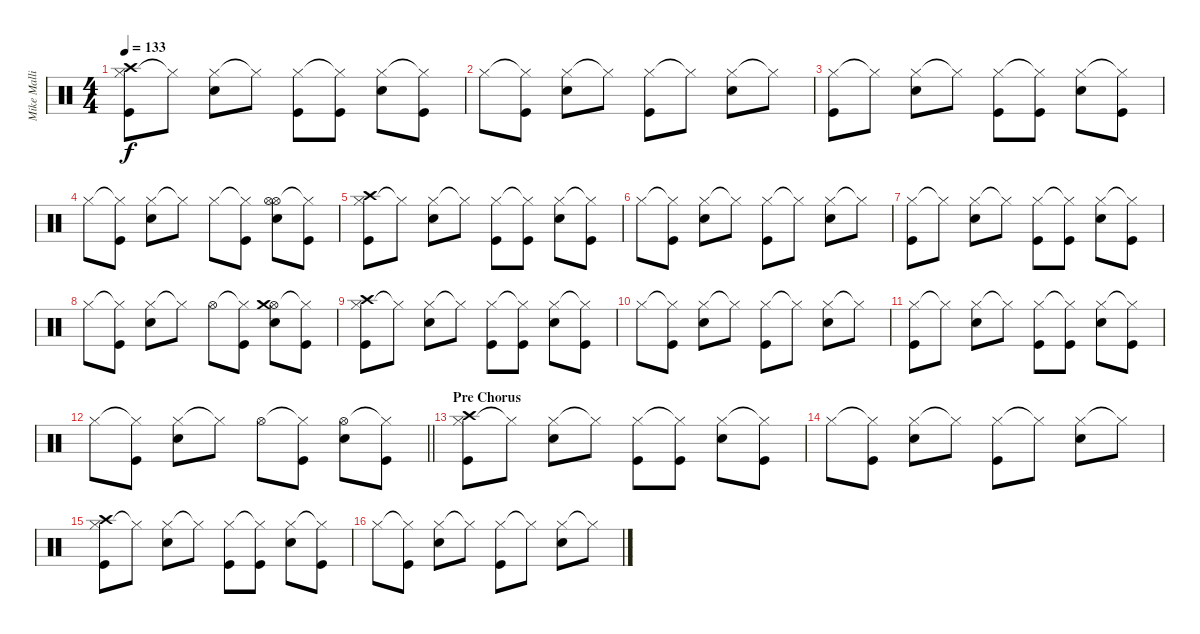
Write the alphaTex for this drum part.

\track ("Mike Mallinin" "Mike Malli") {instrument percussion}
\staff {score}
\articulation defaults
\ts (4 4)
\tempo 133
\clef neutral
\ks c
("Hi-Hat (closed)" "Crash high (hit)" "Kick (hit)").8{dy f} "Hi-Hat (closed)"{t}.8 ("Hi-Hat (closed)" "Snare (hit) 2").8 "Hi-Hat (closed)"{t}.8 ("Hi-Hat (closed)" "Kick (hit)").8 ("Hi-Hat (closed)"{t} "Kick (hit)").8 ("Hi-Hat (closed)" "Snare (hit) 2").8 ("Hi-Hat (closed)"{t} "Kick (hit)").8 |
"Hi-Hat (closed)".8 ("Hi-Hat (closed)"{t} "Kick (hit)").8 ("Hi-Hat (closed)" "Snare (hit) 2").8 "Hi-Hat (closed)"{t}.8 ("Hi-Hat (closed)" "Kick (hit)").8 "Hi-Hat (closed)"{t}.8 ("Hi-Hat (closed)" "Snare (hit) 2").8 "Hi-Hat (closed)"{t}.8 |
("Hi-Hat (closed)" "Kick (hit)").8 "Hi-Hat (closed)"{t}.8 ("Hi-Hat (closed)" "Snare (hit) 2").8 "Hi-Hat (closed)"{t}.8 ("Hi-Hat (closed)" "Kick (hit)").8 ("Hi-Hat (closed)"{t} "Kick (hit)").8 ("Hi-Hat (closed)" "Snare (hit) 2").8 ("Hi-Hat (closed)"{t} "Kick (hit)").8 |
"Hi-Hat (closed)".8 ("Hi-Hat (closed)"{t} "Kick (hit)").8 ("Hi-Hat (closed)" "Snare (hit) 2").8 "Hi-Hat (closed)"{t}.8 "Hi-Hat (closed)".8 ("Hi-Hat (closed)"{t} "Kick (hit)").8 ("Hi-Hat (open)" "Hi-Hat (open)" "Snare (hit) 2").8 ("Hi-Hat (closed)"{t} "Kick (hit)").8 |
("Hi-Hat (closed)" "Crash high (hit)" "Kick (hit)").8 "Hi-Hat (closed)"{t}.8 ("Hi-Hat (closed)" "Snare (hit) 2").8 "Hi-Hat (closed)"{t}.8 ("Hi-Hat (closed)" "Kick (hit)").8 ("Hi-Hat (closed)"{t} "Kick (hit)").8 ("Hi-Hat (closed)" "Snare (hit) 2").8 ("Hi-Hat (closed)"{t} "Kick (hit)").8 |
"Hi-Hat (closed)".8 ("Hi-Hat (closed)"{t} "Kick (hit)").8 ("Hi-Hat (closed)" "Snare (hit) 2").8 "Hi-Hat (closed)"{t}.8 ("Hi-Hat (closed)" "Kick (hit)").8 "Hi-Hat (closed)"{t}.8 ("Hi-Hat (closed)" "Snare (hit) 2").8 "Hi-Hat (closed)"{t}.8 |
("Hi-Hat (closed)" "Kick (hit)").8 "Hi-Hat (closed)"{t}.8 ("Hi-Hat (closed)" "Snare (hit) 2").8 "Hi-Hat (closed)"{t}.8 ("Hi-Hat (closed)" "Kick (hit)").8 ("Hi-Hat (closed)"{t} "Kick (hit)").8 ("Hi-Hat (closed)" "Snare (hit) 2").8 ("Hi-Hat (closed)"{t} "Kick (hit)").8 |
"Hi-Hat (closed)".8 ("Hi-Hat (closed)"{t} "Kick (hit)").8 ("Hi-Hat (closed)" "Snare (hit) 2").8 "Hi-Hat (closed)"{t}.8 "Hi-Hat (open)".8 ("Hi-Hat (closed)"{t} "Kick (hit)").8 ("Hi-Hat (open)" "Crash medium (hit)" "Snare (hit) 2").8 ("Hi-Hat (closed)"{t} "Kick (hit)").8 |
("Hi-Hat (closed)" "Crash high (hit)" "Kick (hit)").8 "Hi-Hat (closed)"{t}.8 ("Hi-Hat (closed)" "Snare (hit) 2").8 "Hi-Hat (closed)"{t}.8 ("Hi-Hat (closed)" "Kick (hit)").8 ("Hi-Hat (closed)"{t} "Kick (hit)").8 ("Hi-Hat (closed)" "Snare (hit) 2").8 ("Hi-Hat (closed)"{t} "Kick (hit)").8 |
"Hi-Hat (closed)".8 ("Hi-Hat (closed)"{t} "Kick (hit)").8 ("Hi-Hat (closed)" "Snare (hit) 2").8 "Hi-Hat (closed)"{t}.8 ("Hi-Hat (closed)" "Kick (hit)").8 "Hi-Hat (closed)"{t}.8 ("Hi-Hat (closed)" "Snare (hit) 2").8 "Hi-Hat (closed)"{t}.8 |
("Hi-Hat (closed)" "Kick (hit)").8 "Hi-Hat (closed)"{t}.8 ("Hi-Hat (closed)" "Snare (hit) 2").8 "Hi-Hat (closed)"{t}.8 ("Hi-Hat (closed)" "Kick (hit)").8 ("Hi-Hat (closed)"{t} "Kick (hit)").8 ("Hi-Hat (closed)" "Snare (hit) 2").8 ("Hi-Hat (closed)"{t} "Kick (hit)").8 |
\barLineRight lightlight "Hi-Hat (closed)".8
("Hi-Hat (closed)"{t} "Kick (hit)").8 ("Hi-Hat (closed)" "Snare (hit) 2").8 "Hi-Hat (closed)"{t}.8 "Hi-Hat (open)".8 ("Hi-Hat (closed)"{t} "Kick (hit)").8 ("Hi-Hat (open)" "Snare (hit) 2").8 ("Hi-Hat (closed)"{t} "Kick (hit)").8 |
\section ("" "Pre Chorus")
("Hi-Hat (closed)" "Crash high (hit)" "Kick (hit)").8 "Hi-Hat (closed)"{t}.8 ("Hi-Hat (closed)" "Snare (hit) 2").8 "Hi-Hat (closed)"{t}.8 ("Hi-Hat (closed)" "Kick (hit)").8 ("Hi-Hat (closed)"{t} "Kick (hit)").8 ("Hi-Hat (closed)" "Snare (hit) 2").8 ("Hi-Hat (closed)"{t} "Kick (hit)").8 |
"Hi-Hat (closed)".8 ("Hi-Hat (closed)"{t} "Kick (hit)").8 ("Hi-Hat (closed)" "Snare (hit) 2").8 "Hi-Hat (closed)"{t}.8 ("Hi-Hat (closed)" "Kick (hit)").8 "Hi-Hat (closed)"{t}.8 ("Hi-Hat (closed)" "Snare (hit) 2").8 "Hi-Hat (closed)"{t}.8 |
("Hi-Hat (closed)" "Crash high (hit)" "Kick (hit)").8 "Hi-Hat (closed)"{t}.8 ("Hi-Hat (closed)" "Snare (hit) 2").8 "Hi-Hat (closed)"{t}.8 ("Hi-Hat (closed)" "Kick (hit)").8 ("Hi-Hat (closed)"{t} "Kick (hit)").8 ("Hi-Hat (closed)" "Snare (hit) 2").8 ("Hi-Hat (closed)"{t} "Kick (hit)").8 |
"Hi-Hat (closed)".8 ("Hi-Hat (closed)"{t} "Kick (hit)").8 ("Hi-Hat (closed)" "Snare (hit) 2").8 "Hi-Hat (closed)"{t}.8 ("Hi-Hat (closed)" "Kick (hit)").8 "Hi-Hat (closed)"{t}.8 ("Hi-Hat (closed)" "Snare (hit) 2").8 "Hi-Hat (closed)"{t}.8
